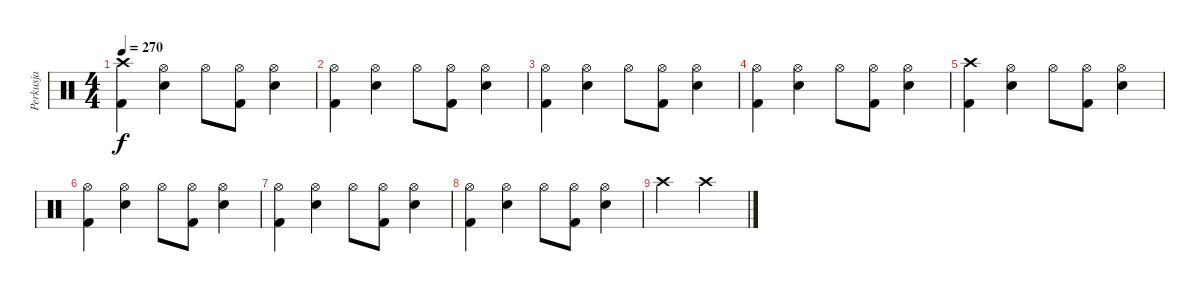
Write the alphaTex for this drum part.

\track ("Perkusja" "Perkusja") {instrument percussion}
\staff {score}
\articulation defaults
\ts (4 4)
\tempo 270
\clef neutral
\ks c
("Crash high (hit)" "Kick (hit) 2").4{dy f} ("Hi-Hat (open)" "Electric Snare (hit)").4 "Hi-Hat (open)".8 ("Hi-Hat (open)" "Kick (hit) 2").8 ("Hi-Hat (open)" "Electric Snare (hit)").4 |
("Hi-Hat (open)" "Kick (hit) 2").4 ("Hi-Hat (open)" "Electric Snare (hit)").4 "Hi-Hat (open)".8 ("Hi-Hat (open)" "Kick (hit) 2").8 ("Hi-Hat (open)" "Electric Snare (hit)").4 |
("Hi-Hat (open)" "Kick (hit) 2").4 ("Hi-Hat (open)" "Electric Snare (hit)").4 "Hi-Hat (open)".8 ("Hi-Hat (open)" "Kick (hit) 2").8 ("Hi-Hat (open)" "Electric Snare (hit)").4 |
("Hi-Hat (open)" "Kick (hit) 2").4 ("Hi-Hat (open)" "Electric Snare (hit)").4 "Hi-Hat (open)".8 ("Hi-Hat (open)" "Kick (hit) 2").8 ("Hi-Hat (open)" "Electric Snare (hit)").4 |
("Crash high (hit)" "Kick (hit) 2").4 ("Hi-Hat (open)" "Electric Snare (hit)").4 "Hi-Hat (open)".8 ("Hi-Hat (open)" "Kick (hit) 2").8 ("Hi-Hat (open)" "Electric Snare (hit)").4 |
("Hi-Hat (open)" "Kick (hit) 2").4 ("Hi-Hat (open)" "Electric Snare (hit)").4 "Hi-Hat (open)".8 ("Hi-Hat (open)" "Kick (hit) 2").8 ("Hi-Hat (open)" "Electric Snare (hit)").4 |
("Hi-Hat (open)" "Kick (hit) 2").4 ("Hi-Hat (open)" "Electric Snare (hit)").4 "Hi-Hat (open)".8 ("Hi-Hat (open)" "Kick (hit) 2").8 ("Hi-Hat (open)" "Electric Snare (hit)").4 |
("Hi-Hat (open)" "Kick (hit) 2").4 ("Hi-Hat (open)" "Electric Snare (hit)").4 "Hi-Hat (open)".8 ("Hi-Hat (open)" "Kick (hit) 2").8 ("Hi-Hat (open)" "Electric Snare (hit)").4 |
"Crash high (hit)".2 "Crash high (hit)".2
